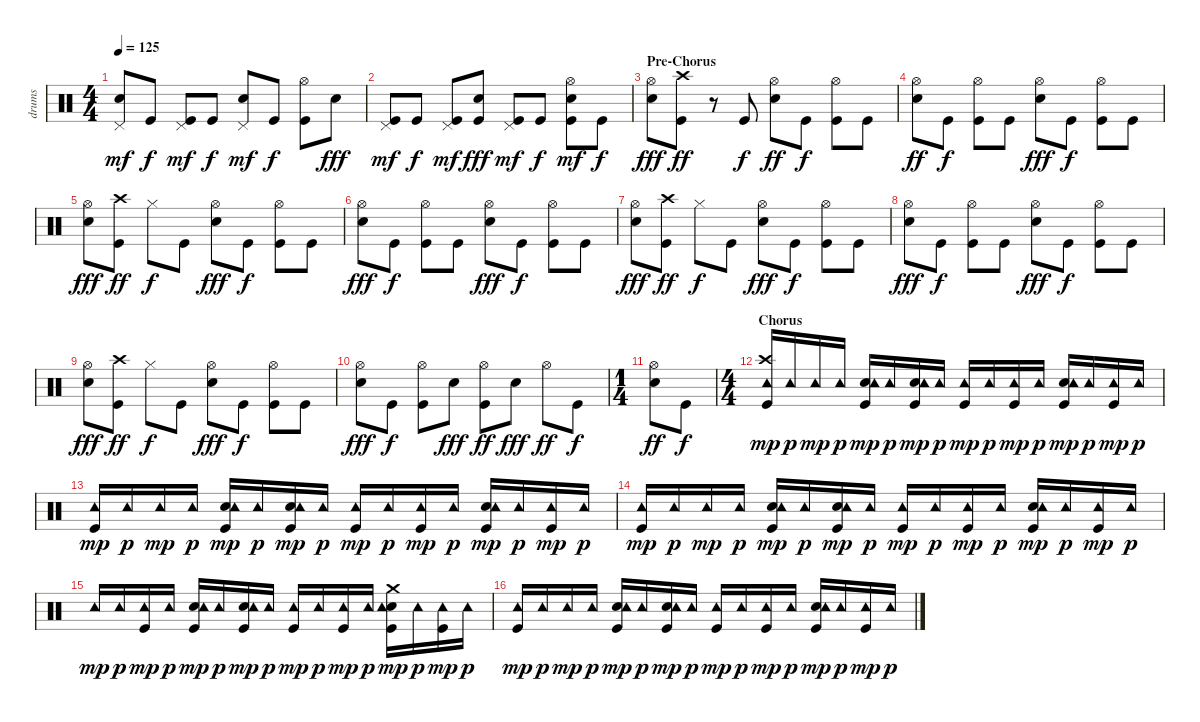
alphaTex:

\track ("drums" "drums") {instrument percussion}
\staff {score}
\articulation defaults
\ts (4 4)
\tempo 125
\clef neutral
\ks c
("Electric Snare (hit)" "Pedal Hi-Hat (hit)").8{dy mf} "Kick (hit)".8{dy f} ("Kick (hit)" "Pedal Hi-Hat (hit)").8{dy mf} "Kick (hit)".8{dy f} ("Electric Snare (hit)" "Pedal Hi-Hat (hit)").8{dy mf} "Kick (hit)".8{dy f} ("Kick (hit)" "Hi-Hat (open)").8 "Electric Snare (hit)".8{dy fff} |
("Kick (hit)" "Pedal Hi-Hat (hit)").8{dy mf} "Kick (hit)".8{dy f} ("Kick (hit)" "Pedal Hi-Hat (hit)").8{dy mf} ("Electric Snare (hit)" "Kick (hit)").8{dy fff} ("Kick (hit)" "Pedal Hi-Hat (hit)").8{dy mf} "Kick (hit)".8{dy f} ("Electric Snare (hit)" "Kick (hit)" "Hi-Hat (open)").8{dy mf} "Kick (hit)".8{dy f} |
\section ("" "Pre-Chorus")
("Electric Snare (hit)" "Hi-Hat (open)").8{dy fff} ("Kick (hit)" "Crash high (hit)").8{dy ff} r.8 "Kick (hit)".8{dy f} ("Electric Snare (hit)" "Hi-Hat (open)").8{dy ff} "Kick (hit)".8{dy f} ("Kick (hit)" "Hi-Hat (open)").8 "Kick (hit)".8 |
("Electric Snare (hit)" "Hi-Hat (open)").8{dy ff} "Kick (hit)".8{dy f} ("Kick (hit)" "Hi-Hat (open)").8 "Kick (hit)".8 ("Electric Snare (hit)" "Hi-Hat (open)").8{dy fff} "Kick (hit)".8{dy f} ("Kick (hit)" "Hi-Hat (open)").8 "Kick (hit)".8 |
("Electric Snare (hit)" "Hi-Hat (open)").8{dy fff} ("Kick (hit)" "Crash high (hit)").8{dy ff} "Hi-Hat (closed)".8{dy f} "Kick (hit)".8 ("Electric Snare (hit)" "Hi-Hat (open)").8{dy fff} "Kick (hit)".8{dy f} ("Kick (hit)" "Hi-Hat (open)").8 "Kick (hit)".8 |
("Electric Snare (hit)" "Hi-Hat (open)").8{dy fff} "Kick (hit)".8{dy f} ("Kick (hit)" "Hi-Hat (open)").8 "Kick (hit)".8 ("Electric Snare (hit)" "Hi-Hat (open)").8{dy fff} "Kick (hit)".8{dy f} ("Kick (hit)" "Hi-Hat (open)").8 "Kick (hit)".8 |
("Electric Snare (hit)" "Hi-Hat (open)").8{dy fff} ("Kick (hit)" "Crash high (hit)").8{dy ff} "Hi-Hat (closed)".8{dy f} "Kick (hit)".8 ("Electric Snare (hit)" "Hi-Hat (open)").8{dy fff} "Kick (hit)".8{dy f} ("Kick (hit)" "Hi-Hat (open)").8 "Kick (hit)".8 |
("Electric Snare (hit)" "Hi-Hat (open)").8{dy fff} "Kick (hit)".8{dy f} ("Kick (hit)" "Hi-Hat (open)").8 "Kick (hit)".8 ("Electric Snare (hit)" "Hi-Hat (open)").8{dy fff} "Kick (hit)".8{dy f} ("Kick (hit)" "Hi-Hat (open)").8 "Kick (hit)".8 |
("Electric Snare (hit)" "Hi-Hat (open)").8{dy fff} ("Kick (hit)" "Crash high (hit)").8{dy ff} "Hi-Hat (closed)".8{dy f} "Kick (hit)".8 ("Electric Snare (hit)" "Hi-Hat (open)").8{dy fff} "Kick (hit)".8{dy f} ("Kick (hit)" "Hi-Hat (open)").8 "Kick (hit)".8 |
("Electric Snare (hit)" "Hi-Hat (open)").8{dy fff} "Kick (hit)".8{dy f} ("Kick (hit)" "Hi-Hat (open)").8 "Electric Snare (hit)".8{dy fff} ("Kick (hit)" "Hi-Hat (open)").8{dy ff} "Electric Snare (hit)".8{dy fff} "Hi-Hat (open)".8{dy ff} "Kick (hit)".8{dy f} |
\ts (1 4)
("Electric Snare (hit)" "Hi-Hat (open)").8{dy ff} "Kick (hit)".8{dy f} |
\ts (4 4)
\section ("" "Chorus")
("Crash high (hit)" "Kick (hit)" "Tambourine (hit)").16{dy mp} "Tambourine (hit)".16{dy p} "Tambourine (hit)".16{dy mp} "Tambourine (hit)".16{dy p} ("Hand Clap (hit)" "Kick (hit)" "Tambourine (hit)").16{dy mp} "Tambourine (hit)".16{dy p} ("Hand Clap (hit)" "Kick (hit)" "Tambourine (hit)").16{dy mp} "Tambourine (hit)".16{dy p} ("Kick (hit)" "Tambourine (hit)").16{dy mp} "Tambourine (hit)".16{dy p} ("Kick (hit)" "Tambourine (hit)").16{dy mp} "Tambourine (hit)".16{dy p} ("Hand Clap (hit)" "Kick (hit)" "Tambourine (hit)").16{dy mp} "Tambourine (hit)".16{dy p} ("Kick (hit)" "Tambourine (hit)").16{dy mp} "Tambourine (hit)".16{dy p} |
("Kick (hit)" "Tambourine (hit)").16{dy mp} "Tambourine (hit)".16{dy p} "Tambourine (hit)".16{dy mp} "Tambourine (hit)".16{dy p} ("Hand Clap (hit)" "Kick (hit)" "Tambourine (hit)").16{dy mp} "Tambourine (hit)".16{dy p} ("Hand Clap (hit)" "Kick (hit)" "Tambourine (hit)").16{dy mp} "Tambourine (hit)".16{dy p} ("Kick (hit)" "Tambourine (hit)").16{dy mp} "Tambourine (hit)".16{dy p} ("Kick (hit)" "Tambourine (hit)").16{dy mp} "Tambourine (hit)".16{dy p} ("Hand Clap (hit)" "Kick (hit)" "Tambourine (hit)").16{dy mp} "Tambourine (hit)".16{dy p} ("Kick (hit)" "Tambourine (hit)").16{dy mp} "Tambourine (hit)".16{dy p} |
("Kick (hit)" "Tambourine (hit)").16{dy mp} "Tambourine (hit)".16{dy p} "Tambourine (hit)".16{dy mp} "Tambourine (hit)".16{dy p} ("Hand Clap (hit)" "Kick (hit)" "Tambourine (hit)").16{dy mp} "Tambourine (hit)".16{dy p} ("Hand Clap (hit)" "Kick (hit)" "Tambourine (hit)").16{dy mp} "Tambourine (hit)".16{dy p} ("Kick (hit)" "Tambourine (hit)").16{dy mp} "Tambourine (hit)".16{dy p} ("Kick (hit)" "Tambourine (hit)").16{dy mp} "Tambourine (hit)".16{dy p} ("Hand Clap (hit)" "Kick (hit)" "Tambourine (hit)").16{dy mp} "Tambourine (hit)".16{dy p} ("Kick (hit)" "Tambourine (hit)").16{dy mp} "Tambourine (hit)".16{dy p} |
"Tambourine (hit)".16{dy mp} "Tambourine (hit)".16{dy p} ("Kick (hit)" "Tambourine (hit)").16{dy mp} "Tambourine (hit)".16{dy p} ("Hand Clap (hit)" "Kick (hit)" "Tambourine (hit)").16{dy mp} "Tambourine (hit)".16{dy p} ("Hand Clap (hit)" "Kick (hit)" "Tambourine (hit)").16{dy mp} "Tambourine (hit)".16{dy p} ("Kick (hit)" "Tambourine (hit)").16{dy mp} "Tambourine (hit)".16{dy p} ("Kick (hit)" "Tambourine (hit)").16{dy mp} "Tambourine (hit)".16{dy p} ("Hand Clap (hit)" "Kick (hit)" "Crash medium (hit)" "Tambourine (hit)").16{dy mp} "Tambourine (hit)".16{dy p} ("Kick (hit)" "Tambourine (hit)").16{dy mp} "Tambourine (hit)".16{dy p} |
("Kick (hit)" "Tambourine (hit)").16{dy mp} "Tambourine (hit)".16{dy p} "Tambourine (hit)".16{dy mp} "Tambourine (hit)".16{dy p} ("Hand Clap (hit)" "Kick (hit)" "Tambourine (hit)").16{dy mp} "Tambourine (hit)".16{dy p} ("Hand Clap (hit)" "Kick (hit)" "Tambourine (hit)").16{dy mp} "Tambourine (hit)".16{dy p} ("Kick (hit)" "Tambourine (hit)").16{dy mp} "Tambourine (hit)".16{dy p} ("Kick (hit)" "Tambourine (hit)").16{dy mp} "Tambourine (hit)".16{dy p} ("Hand Clap (hit)" "Kick (hit)" "Tambourine (hit)").16{dy mp} "Tambourine (hit)".16{dy p} ("Kick (hit)" "Tambourine (hit)").16{dy mp} "Tambourine (hit)".16{dy p}
